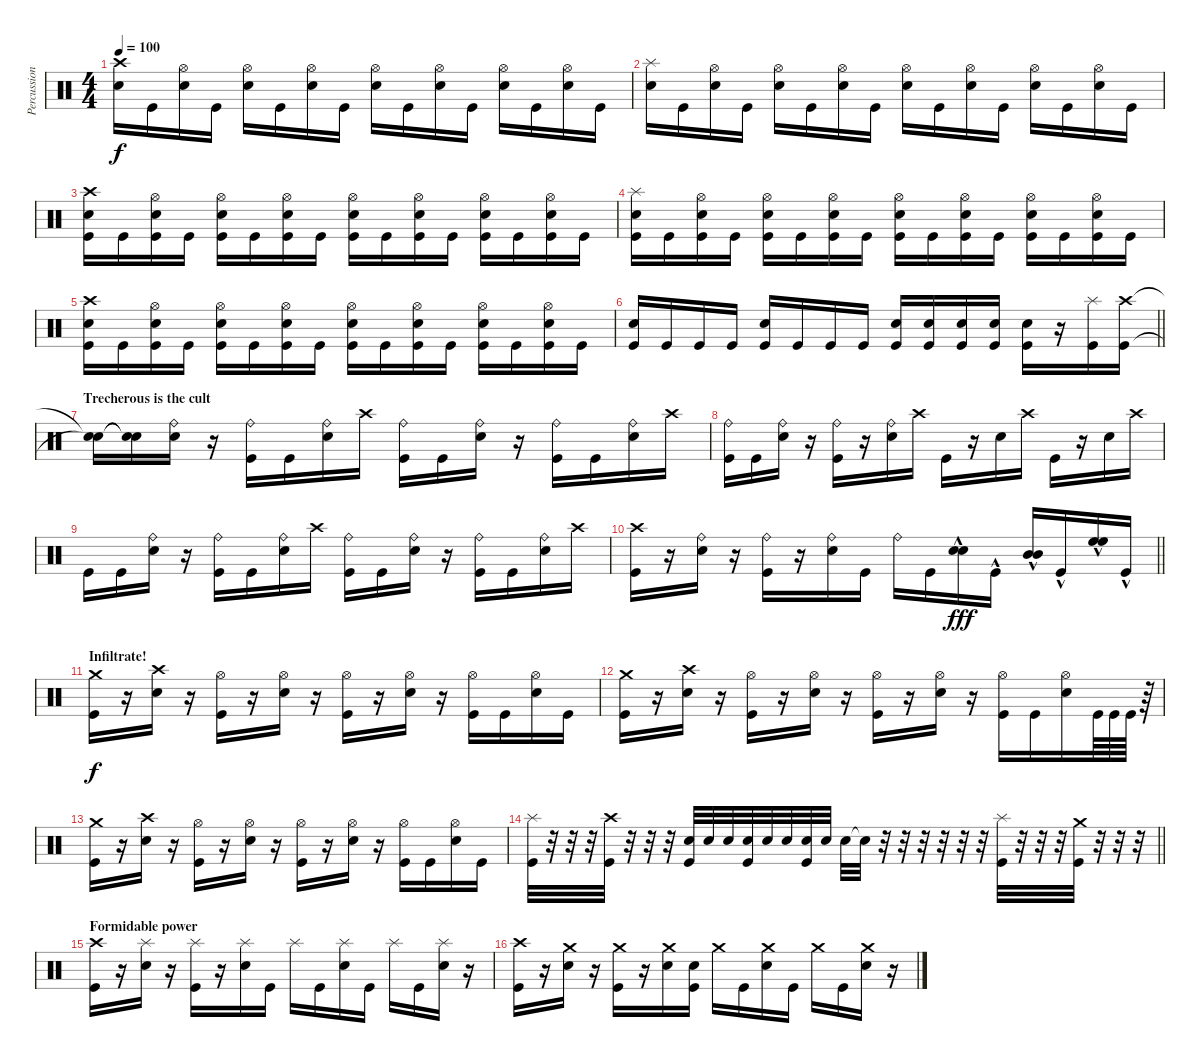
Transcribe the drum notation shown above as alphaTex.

\track ("Percussion" "Percussion") {instrument percussion}
\staff {score}
\articulation defaults
\ts (4 4)
\tempo 100
\clef neutral
\ks c
("Crash high (hit)" "Snare (hit) 2").16{dy f} "Kick (hit)".16 ("Hi-Hat (open)" "Snare (hit) 2").16 "Kick (hit)".16 ("Hi-Hat (open)" "Snare (hit) 2").16 "Kick (hit)".16 ("Hi-Hat (open)" "Snare (hit) 2").16 "Kick (hit)".16 ("Hi-Hat (open)" "Snare (hit) 2").16 "Kick (hit)".16 ("Hi-Hat (open)" "Snare (hit) 2").16 "Kick (hit)".16 ("Hi-Hat (open)" "Snare (hit) 2").16 "Kick (hit)".16 ("Hi-Hat (open)" "Snare (hit) 2").16 "Kick (hit)".16 |
("Splash (hit)" "Snare (hit) 2").16 "Kick (hit)".16 ("Hi-Hat (open)" "Snare (hit) 2").16 "Kick (hit)".16 ("Hi-Hat (open)" "Snare (hit) 2").16 "Kick (hit)".16 ("Hi-Hat (open)" "Snare (hit) 2").16 "Kick (hit)".16 ("Hi-Hat (open)" "Snare (hit) 2").16 "Kick (hit)".16 ("Hi-Hat (open)" "Snare (hit) 2").16 "Kick (hit)".16 ("Hi-Hat (open)" "Snare (hit) 2").16 "Kick (hit)".16 ("Hi-Hat (open)" "Snare (hit) 2").16 "Kick (hit)".16 |
("Crash high (hit)" "Snare (hit) 2" "Kick (hit)").16 "Kick (hit)".16 ("Hi-Hat (open)" "Snare (hit) 2" "Kick (hit)").16 "Kick (hit)".16 ("Hi-Hat (open)" "Snare (hit) 2" "Kick (hit)").16 "Kick (hit)".16 ("Hi-Hat (open)" "Snare (hit) 2" "Kick (hit)").16 "Kick (hit)".16 ("Hi-Hat (open)" "Snare (hit) 2" "Kick (hit)").16 "Kick (hit)".16 ("Hi-Hat (open)" "Snare (hit) 2" "Kick (hit)").16 "Kick (hit)".16 ("Hi-Hat (open)" "Snare (hit) 2" "Kick (hit)").16 "Kick (hit)".16 ("Hi-Hat (open)" "Snare (hit) 2" "Kick (hit)").16 "Kick (hit)".16 |
("Splash (hit)" "Snare (hit) 2" "Kick (hit)").16 "Kick (hit)".16 ("Hi-Hat (open)" "Snare (hit) 2" "Kick (hit)").16 "Kick (hit)".16 ("Hi-Hat (open)" "Snare (hit) 2" "Kick (hit)").16 "Kick (hit)".16 ("Hi-Hat (open)" "Snare (hit) 2" "Kick (hit)").16 "Kick (hit)".16 ("Hi-Hat (open)" "Snare (hit) 2" "Kick (hit)").16 "Kick (hit)".16 ("Hi-Hat (open)" "Snare (hit) 2" "Kick (hit)").16 "Kick (hit)".16 ("Hi-Hat (open)" "Snare (hit) 2" "Kick (hit)").16 "Kick (hit)".16 ("Hi-Hat (open)" "Snare (hit) 2" "Kick (hit)").16 "Kick (hit)".16 |
("Crash high (hit)" "Snare (hit) 2" "Kick (hit)").16 "Kick (hit)".16 ("Hi-Hat (open)" "Snare (hit) 2" "Kick (hit)").16 "Kick (hit)".16 ("Hi-Hat (open)" "Snare (hit) 2" "Kick (hit)").16 "Kick (hit)".16 ("Hi-Hat (open)" "Snare (hit) 2" "Kick (hit)").16 "Kick (hit)".16 ("Hi-Hat (open)" "Snare (hit) 2" "Kick (hit)").16 "Kick (hit)".16 ("Hi-Hat (open)" "Snare (hit) 2" "Kick (hit)").16 "Kick (hit)".16 ("Hi-Hat (open)" "Snare (hit) 2" "Kick (hit)").16 "Kick (hit)".16 ("Hi-Hat (open)" "Snare (hit) 2" "Kick (hit)").16 "Kick (hit)".16 |
\barLineRight lightlight
("Snare (hit) 2" "Kick (hit)").16 "Kick (hit)".16 "Kick (hit)".16 "Kick (hit)".16 ("Snare (hit) 2" "Kick (hit)").16 "Kick (hit)".16 "Kick (hit)".16 "Kick (hit)".16 ("Snare (hit) 2" "Kick (hit)").16 ("Snare (hit) 2" "Kick (hit)").16 ("Snare (hit) 2" "Kick (hit)").16 ("Snare (hit) 2" "Kick (hit)").16 ("Snare (hit) 2" "Kick (hit)").16 r.16 ("Splash (hit)" "Kick (hit)").16 ("Crash high (hit)" "Kick (hit)").16 |
\section ("" "Trecherous is the cult")
("Snare (hit)"{t} "Snare (hit)"{t}).16 ("Snare (hit)"{t} "Snare (hit)"{t}).16 ("Ride (bell)" "Snare (hit) 2").16 r.16 ("Ride (bell)" "Kick (hit)").16 "Kick (hit)".16 ("Ride (bell)" "Snare (hit) 2").16 "Crash high (hit)".16 ("Ride (bell)" "Kick (hit)").16 "Kick (hit)".16 ("Ride (bell)" "Snare (hit) 2").16 r.16 ("Ride (bell)" "Kick (hit)").16 "Kick (hit)".16 ("Ride (bell)" "Snare (hit) 2").16 "Crash high (hit)".16 |
("Ride (bell)" "Kick (hit)").16 "Kick (hit)".16 ("Ride (bell)" "Snare (hit) 2").16 r.16 ("Ride (bell)" "Kick (hit)").16 r.16 ("Ride (bell)" "Snare (hit) 2").16 "Crash high (hit)".16 "Kick (hit)".16 r.16 "Snare (hit) 2".16 "Crash high (hit)".16 "Kick (hit)".16 r.16 "Snare (hit) 2".16 "Crash high (hit)".16 |
"Kick (hit)".16 "Kick (hit)".16 ("Ride (bell)" "Snare (hit) 2").16 r.16 ("Ride (bell)" "Kick (hit)").16 "Kick (hit)".16 ("Ride (bell)" "Snare (hit) 2").16 "Crash high (hit)".16 ("Ride (bell)" "Kick (hit)").16 "Kick (hit)".16 ("Ride (bell)" "Snare (hit) 2").16 r.16 ("Ride (bell)" "Kick (hit)").16 "Kick (hit)".16 ("Ride (bell)" "Snare (hit) 2").16 "Crash high (hit)".16 |
\barLineRight lightlight
("Crash high (hit)" "Kick (hit)").16 r.16 ("Ride (bell)" "Snare (hit) 2").16 r.16 ("Ride (bell)" "Kick (hit)").16 r.16 ("Ride (bell)" "Snare (hit) 2").16 "Kick (hit)".16 "Ride (bell)".16 "Kick (hit)".16 ("Snare (hit) 2"{hac} "Snare (hit) 2").16{dy fff} "Kick (hit)"{hac}.16 ("Mid Tom (hit)"{hac} "Mid Tom (hit)"{hac}).16 "Kick (hit)"{hac}.16 ("High Floor Tom (hit)"{hac} "High Floor Tom (hit)"{hac}).16 "Kick (hit)"{hac}.16 |
\section ("" "Infiltrate!")
("Crash medium (hit)" "Kick (hit)").16{dy f} r.16 ("Crash high (hit)" "Snare (hit) 2").16 r.16 ("Hi-Hat (open)" "Kick (hit)").16 r.16 ("Hi-Hat (open)" "Snare (hit) 2").16 r.16 ("Hi-Hat (open)" "Kick (hit)").16 r.16 ("Hi-Hat (open)" "Snare (hit) 2").16 r.16 ("Hi-Hat (open)" "Kick (hit)").16 "Kick (hit)".16 ("Hi-Hat (open)" "Snare (hit) 2").16 "Kick (hit)".16 |
("Crash medium (hit)" "Kick (hit)").16 r.16 ("Crash high (hit)" "Snare (hit) 2").16 r.16 ("Hi-Hat (open)" "Kick (hit)").16 r.16 ("Hi-Hat (open)" "Snare (hit) 2").16 r.16 ("Hi-Hat (open)" "Kick (hit)").16 r.16 ("Hi-Hat (open)" "Snare (hit) 2").16 r.16 ("Hi-Hat (open)" "Kick (hit)").16 "Kick (hit)".16 ("Hi-Hat (open)" "Snare (hit) 2").16 "Kick (hit)".64 "Kick (hit)".64 "Kick (hit)".64 r.64 |
("Crash medium (hit)" "Kick (hit)").16 r.16 ("Crash high (hit)" "Snare (hit) 2").16 r.16 ("Hi-Hat (open)" "Kick (hit)").16 r.16 ("Hi-Hat (open)" "Snare (hit) 2").16 r.16 ("Hi-Hat (open)" "Kick (hit)").16 r.16 ("Hi-Hat (open)" "Snare (hit) 2").16 r.16 ("Hi-Hat (open)" "Kick (hit)").16 "Kick (hit)".16 ("Hi-Hat (open)" "Snare (hit) 2").16 "Kick (hit)".16 |
\barLineRight lightlight
("Splash (hit)" "Kick (hit)").32 r.32 r.32 r.32 ("Crash high (hit)" "Kick (hit)").32 r.32 r.32 r.32 ("Snare (hit) 2" "Kick (hit)").32 "Snare (hit) 2".32 "Snare (hit) 2".32 ("Snare (hit) 2" "Kick (hit)").32 "Snare (hit) 2".32 "Snare (hit) 2".32 ("Snare (hit) 2" "Kick (hit)").32 "Snare (hit) 2".32 "Snare (hit) 2".32 "Snare (hit)"{t}.32 r.32 r.32 r.32 r.32 r.32 r.32 ("Splash (hit)" "Kick (hit)").32 r.32 r.32 r.32 ("Crash medium (hit)" "Kick (hit)").32 r.32 r.32 r.32 |
\section ("" "Formidable power")
("Crash high (hit)" "Kick (hit)").16 r.16 ("Splash (hit)" "Snare (hit) 2").16 r.16 ("Splash (hit)" "Kick (hit)").16 r.16 ("Splash (hit)" "Snare (hit) 2").16 "Kick (hit)".16 "Splash (hit)".16 "Kick (hit)".16 ("Splash (hit)" "Snare (hit) 2").16 "Kick (hit)".16 "Splash (hit)".16 "Kick (hit)".16 ("Splash (hit)" "Snare (hit) 2").16 r.16 |
("Crash high (hit)" "Kick (hit)").16 r.16 ("Crash medium (hit)" "Snare (hit) 2").16 r.16 ("Crash medium (hit)" "Kick (hit)").16 r.16 ("Crash medium (hit)" "Snare (hit) 2").16 ("Snare (hit)" "Kick (hit)").16 "Crash medium (hit)".16 "Kick (hit)".16 ("Crash medium (hit)" "Snare (hit) 2").16 "Kick (hit)".16 "Crash medium (hit)".16 "Kick (hit)".16 ("Crash medium (hit)" "Snare (hit) 2").16 r.16
